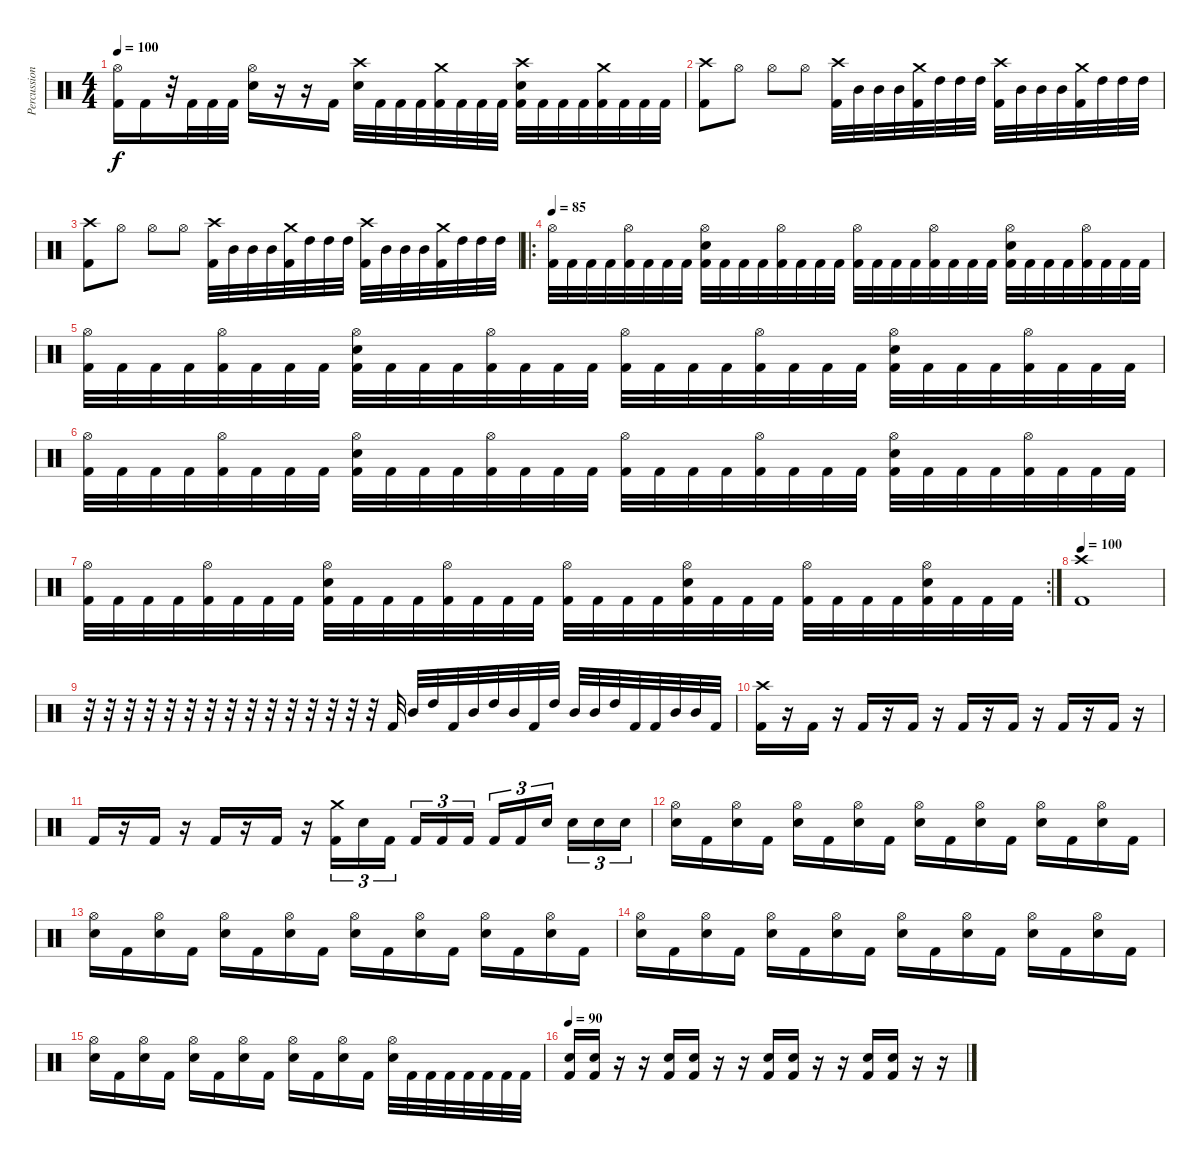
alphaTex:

\track ("Percussions" "Percussion") {instrument percussion}
\staff {score}
\articulation defaults
\ts (4 4)
\tempo 100
\clef neutral
\ks c
("Kick (hit) 2" "Hi-Hat (open)").16{dy f} "Kick (hit) 2".16 r.32 "Kick (hit) 2".32 "Kick (hit) 2".32 "Kick (hit) 2".32 ("Electric Snare (hit)" "Hi-Hat (open)").16 r.16 r.16 "Kick (hit) 2".16 ("Electric Snare (hit)" "Crash high (hit)").32 "Kick (hit) 2".32 "Kick (hit) 2".32 "Kick (hit) 2".32 ("Kick (hit) 2" "Crash medium (hit)").32 "Kick (hit) 2".32 "Kick (hit) 2".32 "Kick (hit) 2".32 ("Kick (hit) 2" "Electric Snare (hit)" "Crash high (hit)").32 "Kick (hit) 2".32 "Kick (hit) 2".32 "Kick (hit) 2".32 ("Kick (hit) 2" "Crash medium (hit)").32 "Kick (hit) 2".32 "Kick (hit) 2".32 "Kick (hit) 2".32 |
("Kick (hit) 2" "Crash high (hit)").8 "Hi-Hat (open)".8 "Hi-Hat (open)".8 "Hi-Hat (open)".8 ("Kick (hit) 2" "Crash high (hit)").32 "Mid Tom (hit)".32 "Mid Tom (hit)".32 "Mid Tom (hit)".32 ("Kick (hit) 2" "Crash medium (hit)").32 "High Tom (hit)".32 "High Tom (hit)".32 "High Tom (hit)".32 ("Kick (hit) 2" "Crash high (hit)").32 "Mid Tom (hit)".32 "Mid Tom (hit)".32 "Mid Tom (hit)".32 ("Kick (hit) 2" "Crash medium (hit)").32 "High Tom (hit)".32 "High Tom (hit)".32 "High Tom (hit)".32 |
("Kick (hit) 2" "Crash high (hit)").8 "Hi-Hat (open)".8 "Hi-Hat (open)".8 "Hi-Hat (open)".8 ("Kick (hit) 2" "Crash high (hit)").32 "Mid Tom (hit)".32 "Mid Tom (hit)".32 "Mid Tom (hit)".32 ("Kick (hit) 2" "Crash medium (hit)").32 "High Tom (hit)".32 "High Tom (hit)".32 "High Tom (hit)".32 ("Kick (hit) 2" "Crash high (hit)").32 "Mid Tom (hit)".32 "Mid Tom (hit)".32 "Mid Tom (hit)".32 ("Kick (hit) 2" "Crash medium (hit)").32 "High Tom (hit)".32 "High Tom (hit)".32 "High Tom (hit)".32 |
\ro
\tempo 85
("Kick (hit) 2" "Hi-Hat (open)").32 "Kick (hit) 2".32 "Kick (hit) 2".32 "Kick (hit) 2".32 ("Kick (hit) 2" "Hi-Hat (open)").32 "Kick (hit) 2".32 "Kick (hit) 2".32 "Kick (hit) 2".32 ("Kick (hit) 2" "Electric Snare (hit)" "Hi-Hat (open)").32 "Kick (hit) 2".32 "Kick (hit) 2".32 "Kick (hit) 2".32 ("Kick (hit) 2" "Hi-Hat (open)").32 "Kick (hit) 2".32 "Kick (hit) 2".32 "Kick (hit) 2".32 ("Kick (hit) 2" "Hi-Hat (open)").32 "Kick (hit) 2".32 "Kick (hit) 2".32 "Kick (hit) 2".32 ("Kick (hit) 2" "Hi-Hat (open)").32 "Kick (hit) 2".32 "Kick (hit) 2".32 "Kick (hit) 2".32 ("Kick (hit) 2" "Electric Snare (hit)" "Hi-Hat (open)").32 "Kick (hit) 2".32 "Kick (hit) 2".32 "Kick (hit) 2".32 ("Kick (hit) 2" "Hi-Hat (open)").32 "Kick (hit) 2".32 "Kick (hit) 2".32 "Kick (hit) 2".32 |
("Kick (hit) 2" "Hi-Hat (open)").32 "Kick (hit) 2".32 "Kick (hit) 2".32 "Kick (hit) 2".32 ("Kick (hit) 2" "Hi-Hat (open)").32 "Kick (hit) 2".32 "Kick (hit) 2".32 "Kick (hit) 2".32 ("Kick (hit) 2" "Electric Snare (hit)" "Hi-Hat (open)").32 "Kick (hit) 2".32 "Kick (hit) 2".32 "Kick (hit) 2".32 ("Kick (hit) 2" "Hi-Hat (open)").32 "Kick (hit) 2".32 "Kick (hit) 2".32 "Kick (hit) 2".32 ("Kick (hit) 2" "Hi-Hat (open)").32 "Kick (hit) 2".32 "Kick (hit) 2".32 "Kick (hit) 2".32 ("Kick (hit) 2" "Hi-Hat (open)").32 "Kick (hit) 2".32 "Kick (hit) 2".32 "Kick (hit) 2".32 ("Kick (hit) 2" "Electric Snare (hit)" "Hi-Hat (open)").32 "Kick (hit) 2".32 "Kick (hit) 2".32 "Kick (hit) 2".32 ("Kick (hit) 2" "Hi-Hat (open)").32 "Kick (hit) 2".32 "Kick (hit) 2".32 "Kick (hit) 2".32 |
("Kick (hit) 2" "Hi-Hat (open)").32 "Kick (hit) 2".32 "Kick (hit) 2".32 "Kick (hit) 2".32 ("Kick (hit) 2" "Hi-Hat (open)").32 "Kick (hit) 2".32 "Kick (hit) 2".32 "Kick (hit) 2".32 ("Kick (hit) 2" "Electric Snare (hit)" "Hi-Hat (open)").32 "Kick (hit) 2".32 "Kick (hit) 2".32 "Kick (hit) 2".32 ("Kick (hit) 2" "Hi-Hat (open)").32 "Kick (hit) 2".32 "Kick (hit) 2".32 "Kick (hit) 2".32 ("Kick (hit) 2" "Hi-Hat (open)").32 "Kick (hit) 2".32 "Kick (hit) 2".32 "Kick (hit) 2".32 ("Kick (hit) 2" "Hi-Hat (open)").32 "Kick (hit) 2".32 "Kick (hit) 2".32 "Kick (hit) 2".32 ("Kick (hit) 2" "Electric Snare (hit)" "Hi-Hat (open)").32 "Kick (hit) 2".32 "Kick (hit) 2".32 "Kick (hit) 2".32 ("Kick (hit) 2" "Hi-Hat (open)").32 "Kick (hit) 2".32 "Kick (hit) 2".32 "Kick (hit) 2".32 |
\rc 2
("Kick (hit) 2" "Hi-Hat (open)").32 "Kick (hit) 2".32 "Kick (hit) 2".32 "Kick (hit) 2".32 ("Kick (hit) 2" "Hi-Hat (open)").32 "Kick (hit) 2".32 "Kick (hit) 2".32 "Kick (hit) 2".32 ("Kick (hit) 2" "Electric Snare (hit)" "Hi-Hat (open)").32 "Kick (hit) 2".32 "Kick (hit) 2".32 "Kick (hit) 2".32 ("Kick (hit) 2" "Hi-Hat (open)").32 "Kick (hit) 2".32 "Kick (hit) 2".32 "Kick (hit) 2".32 ("Kick (hit) 2" "Hi-Hat (open)").32 "Kick (hit) 2".32 "Kick (hit) 2".32 "Kick (hit) 2".32 ("Kick (hit) 2" "Electric Snare (hit)" "Hi-Hat (open)").32 "Kick (hit) 2".32 "Kick (hit) 2".32 "Kick (hit) 2".32 ("Kick (hit) 2" "Hi-Hat (open)").32 "Kick (hit) 2".32 "Kick (hit) 2".32 "Kick (hit) 2".32 ("Kick (hit) 2" "Electric Snare (hit)" "Hi-Hat (open)").32 "Kick (hit) 2".32 "Kick (hit) 2".32 "Kick (hit) 2".32 |
\tempo 100
("Kick (hit) 2" "Crash high (hit)").1 |
r.32 r.32 r.32 r.32 r.32 r.32 r.32 r.32 r.32 r.32 r.32 r.32 r.32 r.32 r.32 "Kick (hit) 2".32 "Mid Tom (hit)".32 "High Tom (hit)".32 "Kick (hit) 2".32 "Mid Tom (hit)".32 "High Tom (hit)".32 "Mid Tom (hit)".32 "Kick (hit) 2".32 "High Tom (hit)".32 "Mid Tom (hit)".32 "Mid Tom (hit)".32 "High Tom (hit)".32 "Kick (hit) 2".32 "Kick (hit) 2".32 "Mid Tom (hit)".32 "Mid Tom (hit)".32 "Kick (hit) 2".32 |
("Kick (hit) 2" "Crash high (hit)").16 r.16 "Kick (hit) 2".16 r.16 "Kick (hit) 2".16 r.16 "Kick (hit) 2".16 r.16 "Kick (hit) 2".16 r.16 "Kick (hit) 2".16 r.16 "Kick (hit) 2".16 r.16 "Kick (hit) 2".16 r.16 |
"Kick (hit) 2".16 r.16 "Kick (hit) 2".16 r.16 "Kick (hit) 2".16 r.16 "Kick (hit) 2".16 r.16 ("Kick (hit) 2" "Crash medium (hit)").16{tu (3 2)} "Electric Snare (hit)".16{tu (3 2)} "Kick (hit) 2".16{tu (3 2)} "Kick (hit) 2".16{tu (3 2)} "Kick (hit) 2".16{tu (3 2)} "Kick (hit) 2".16{tu (3 2)} "Kick (hit) 2".16{tu (3 2)} "Kick (hit) 2".16{tu (3 2)} "Electric Snare (hit)".16{tu (3 2)} "Electric Snare (hit)".16{tu (3 2)} "Electric Snare (hit)".16{tu (3 2)} "Electric Snare (hit)".16{tu (3 2)} |
("Electric Snare (hit)" "Hi-Hat (open)").16 "Kick (hit) 2".16 ("Electric Snare (hit)" "Hi-Hat (open)").16 "Kick (hit) 2".16 ("Electric Snare (hit)" "Hi-Hat (open)").16 "Kick (hit) 2".16 ("Electric Snare (hit)" "Hi-Hat (open)").16 "Kick (hit) 2".16 ("Electric Snare (hit)" "Hi-Hat (open)").16 "Kick (hit) 2".16 ("Electric Snare (hit)" "Hi-Hat (open)").16 "Kick (hit) 2".16 ("Electric Snare (hit)" "Hi-Hat (open)").16 "Kick (hit) 2".16 ("Electric Snare (hit)" "Hi-Hat (open)").16 "Kick (hit) 2".16 |
("Electric Snare (hit)" "Hi-Hat (open)").16 "Kick (hit) 2".16 ("Electric Snare (hit)" "Hi-Hat (open)").16 "Kick (hit) 2".16 ("Electric Snare (hit)" "Hi-Hat (open)").16 "Kick (hit) 2".16 ("Electric Snare (hit)" "Hi-Hat (open)").16 "Kick (hit) 2".16 ("Electric Snare (hit)" "Hi-Hat (open)").16 "Kick (hit) 2".16 ("Electric Snare (hit)" "Hi-Hat (open)").16 "Kick (hit) 2".16 ("Electric Snare (hit)" "Hi-Hat (open)").16 "Kick (hit) 2".16 ("Electric Snare (hit)" "Hi-Hat (open)").16 "Kick (hit) 2".16 |
("Electric Snare (hit)" "Hi-Hat (open)").16 "Kick (hit) 2".16 ("Electric Snare (hit)" "Hi-Hat (open)").16 "Kick (hit) 2".16 ("Electric Snare (hit)" "Hi-Hat (open)").16 "Kick (hit) 2".16 ("Electric Snare (hit)" "Hi-Hat (open)").16 "Kick (hit) 2".16 ("Electric Snare (hit)" "Hi-Hat (open)").16 "Kick (hit) 2".16 ("Electric Snare (hit)" "Hi-Hat (open)").16 "Kick (hit) 2".16 ("Electric Snare (hit)" "Hi-Hat (open)").16 "Kick (hit) 2".16 ("Electric Snare (hit)" "Hi-Hat (open)").16 "Kick (hit) 2".16 |
("Electric Snare (hit)" "Hi-Hat (open)").16 "Kick (hit) 2".16 ("Electric Snare (hit)" "Hi-Hat (open)").16 "Kick (hit) 2".16 ("Electric Snare (hit)" "Hi-Hat (open)").16 "Kick (hit) 2".16 ("Electric Snare (hit)" "Hi-Hat (open)").16 "Kick (hit) 2".16 ("Electric Snare (hit)" "Hi-Hat (open)").16 "Kick (hit) 2".16 ("Electric Snare (hit)" "Hi-Hat (open)").16 "Kick (hit) 2".16 ("Electric Snare (hit)" "Hi-Hat (open)").32 "Kick (hit) 2".32 "Kick (hit) 2".32 "Kick (hit) 2".32 "Kick (hit) 2".32 "Kick (hit) 2".32 "Kick (hit) 2".32 "Kick (hit) 2".32 |
\tempo 90
("Kick (hit) 2" "Electric Snare (hit)").16 ("Kick (hit) 2" "Electric Snare (hit)").16 r.16 r.16 ("Kick (hit) 2" "Electric Snare (hit)").16 ("Kick (hit) 2" "Electric Snare (hit)").16 r.16 r.16 ("Kick (hit) 2" "Electric Snare (hit)").16 ("Kick (hit) 2" "Electric Snare (hit)").16 r.16 r.16 ("Kick (hit) 2" "Electric Snare (hit)").16 ("Kick (hit) 2" "Electric Snare (hit)").16 r.16 r.16
